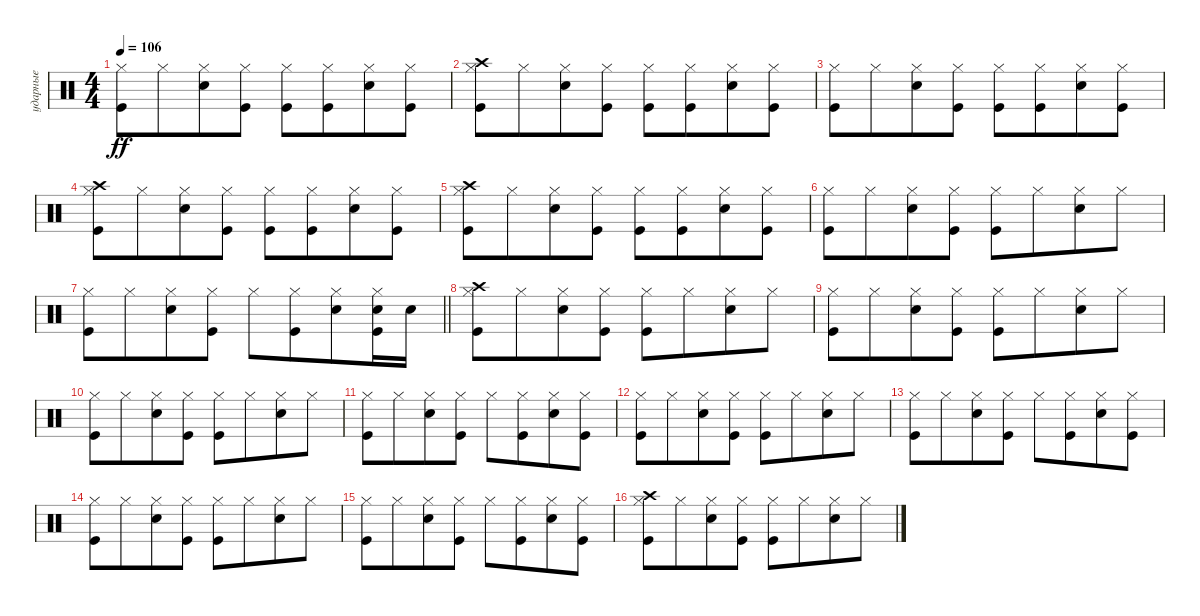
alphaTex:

\track ("ударные" "ударные") {instrument percussion}
\staff {score}
\articulation defaults
\ts (4 4)
\tempo 106
\clef neutral
\ks aminor
("Hi-Hat (closed)" "Kick (hit)").8{dy ff} "Hi-Hat (closed)".8{beam merge} ("Hi-Hat (closed)" "Snare (hit) 2").8 ("Hi-Hat (closed)" "Kick (hit)").8 ("Hi-Hat (closed)" "Kick (hit)").8 ("Hi-Hat (closed)" "Kick (hit)").8{beam merge} ("Hi-Hat (closed)" "Snare (hit) 2").8 ("Hi-Hat (closed)" "Kick (hit)").8 |
("Hi-Hat (closed)" "Crash high (hit)" "Kick (hit)").8 "Hi-Hat (closed)".8{beam merge} ("Hi-Hat (closed)" "Snare (hit) 2").8 ("Hi-Hat (closed)" "Kick (hit)").8 ("Hi-Hat (closed)" "Kick (hit)").8 ("Hi-Hat (closed)" "Kick (hit)").8{beam merge} ("Hi-Hat (closed)" "Snare (hit) 2").8 ("Hi-Hat (closed)" "Kick (hit)").8 |
("Hi-Hat (closed)" "Kick (hit)").8 "Hi-Hat (closed)".8{beam merge} ("Hi-Hat (closed)" "Snare (hit) 2").8 ("Hi-Hat (closed)" "Kick (hit)").8 ("Hi-Hat (closed)" "Kick (hit)").8 ("Hi-Hat (closed)" "Kick (hit)").8{beam merge} ("Hi-Hat (closed)" "Snare (hit) 2").8 ("Hi-Hat (closed)" "Kick (hit)").8 |
("Hi-Hat (closed)" "Crash high (hit)" "Kick (hit)").8 "Hi-Hat (closed)".8{beam merge} ("Hi-Hat (closed)" "Snare (hit) 2").8 ("Hi-Hat (closed)" "Kick (hit)").8 ("Hi-Hat (closed)" "Kick (hit)").8 ("Hi-Hat (closed)" "Kick (hit)").8{beam merge} ("Hi-Hat (closed)" "Snare (hit) 2").8 ("Hi-Hat (closed)" "Kick (hit)").8 |
("Hi-Hat (closed)" "Crash high (hit)" "Kick (hit)").8 "Hi-Hat (closed)".8{beam merge} ("Hi-Hat (closed)" "Snare (hit) 2").8 ("Hi-Hat (closed)" "Kick (hit)").8 ("Hi-Hat (closed)" "Kick (hit)").8 ("Hi-Hat (closed)" "Kick (hit)").8{beam merge} ("Hi-Hat (closed)" "Snare (hit) 2").8 ("Hi-Hat (closed)" "Kick (hit)").8 |
("Hi-Hat (closed)" "Kick (hit)").8 "Hi-Hat (closed)".8{beam merge} ("Hi-Hat (closed)" "Snare (hit) 2").8 ("Hi-Hat (closed)" "Kick (hit)").8 ("Hi-Hat (closed)" "Kick (hit)").8 "Hi-Hat (closed)".8{beam merge} ("Hi-Hat (closed)" "Snare (hit) 2").8 "Hi-Hat (closed)".8 |
\barLineRight lightlight
("Hi-Hat (closed)" "Kick (hit)").8 "Hi-Hat (closed)".8{beam merge} ("Hi-Hat (closed)" "Snare (hit) 2").8 ("Hi-Hat (closed)" "Kick (hit)").8 "Hi-Hat (closed)".8 ("Hi-Hat (closed)" "Kick (hit)").8{beam merge} ("Hi-Hat (closed)" "Snare (hit) 2").8 ("Hi-Hat (closed)" "Snare (hit) 2" "Kick (hit)").16 "Snare (hit) 2".16 |
\section ("" "")
("Hi-Hat (closed)" "Crash high (hit)" "Kick (hit)").8 "Hi-Hat (closed)".8{beam merge} ("Hi-Hat (closed)" "Snare (hit) 2").8 ("Hi-Hat (closed)" "Kick (hit)").8 ("Hi-Hat (closed)" "Kick (hit)").8 "Hi-Hat (closed)".8{beam merge} ("Hi-Hat (closed)" "Snare (hit) 2").8 "Hi-Hat (closed)".8 |
("Hi-Hat (closed)" "Kick (hit)").8 "Hi-Hat (closed)".8{beam merge} ("Hi-Hat (closed)" "Snare (hit) 2").8 ("Hi-Hat (closed)" "Kick (hit)").8 ("Hi-Hat (closed)" "Kick (hit)").8 "Hi-Hat (closed)".8{beam merge} ("Hi-Hat (closed)" "Snare (hit) 2").8 "Hi-Hat (closed)".8 |
("Hi-Hat (closed)" "Kick (hit)").8 "Hi-Hat (closed)".8{beam merge} ("Hi-Hat (closed)" "Snare (hit) 2").8 ("Hi-Hat (closed)" "Kick (hit)").8 ("Hi-Hat (closed)" "Kick (hit)").8 "Hi-Hat (closed)".8{beam merge} ("Hi-Hat (closed)" "Snare (hit) 2").8 "Hi-Hat (closed)".8 |
("Hi-Hat (closed)" "Kick (hit)").8 "Hi-Hat (closed)".8{beam merge} ("Hi-Hat (closed)" "Snare (hit) 2").8 ("Hi-Hat (closed)" "Kick (hit)").8 "Hi-Hat (closed)".8 ("Hi-Hat (closed)" "Kick (hit)").8{beam merge} ("Hi-Hat (closed)" "Snare (hit) 2").8 ("Hi-Hat (closed)" "Kick (hit)").8 |
("Hi-Hat (closed)" "Kick (hit)").8 "Hi-Hat (closed)".8{beam merge} ("Hi-Hat (closed)" "Snare (hit) 2").8 ("Hi-Hat (closed)" "Kick (hit)").8 ("Hi-Hat (closed)" "Kick (hit)").8 "Hi-Hat (closed)".8{beam merge} ("Hi-Hat (closed)" "Snare (hit) 2").8 "Hi-Hat (closed)".8 |
("Hi-Hat (closed)" "Kick (hit)").8 "Hi-Hat (closed)".8{beam merge} ("Hi-Hat (closed)" "Snare (hit) 2").8 ("Hi-Hat (closed)" "Kick (hit)").8 "Hi-Hat (closed)".8 ("Hi-Hat (closed)" "Kick (hit)").8{beam merge} ("Hi-Hat (closed)" "Snare (hit) 2").8 ("Hi-Hat (closed)" "Kick (hit)").8 |
("Hi-Hat (closed)" "Kick (hit)").8 "Hi-Hat (closed)".8{beam merge} ("Hi-Hat (closed)" "Snare (hit) 2").8 ("Hi-Hat (closed)" "Kick (hit)").8 ("Hi-Hat (closed)" "Kick (hit)").8 "Hi-Hat (closed)".8{beam merge} ("Hi-Hat (closed)" "Snare (hit) 2").8 "Hi-Hat (closed)".8 |
("Hi-Hat (closed)" "Kick (hit)").8 "Hi-Hat (closed)".8{beam merge} ("Hi-Hat (closed)" "Snare (hit) 2").8 ("Hi-Hat (closed)" "Kick (hit)").8 "Hi-Hat (closed)".8 ("Hi-Hat (closed)" "Kick (hit)").8{beam merge} ("Hi-Hat (closed)" "Snare (hit) 2").8 ("Hi-Hat (closed)" "Kick (hit)").8 |
("Hi-Hat (closed)" "Crash high (hit)" "Kick (hit)").8 "Hi-Hat (closed)".8{beam merge} ("Hi-Hat (closed)" "Snare (hit) 2").8 ("Hi-Hat (closed)" "Kick (hit)").8 ("Hi-Hat (closed)" "Kick (hit)").8 "Hi-Hat (closed)".8{beam merge} ("Hi-Hat (closed)" "Snare (hit) 2").8 "Hi-Hat (closed)".8
